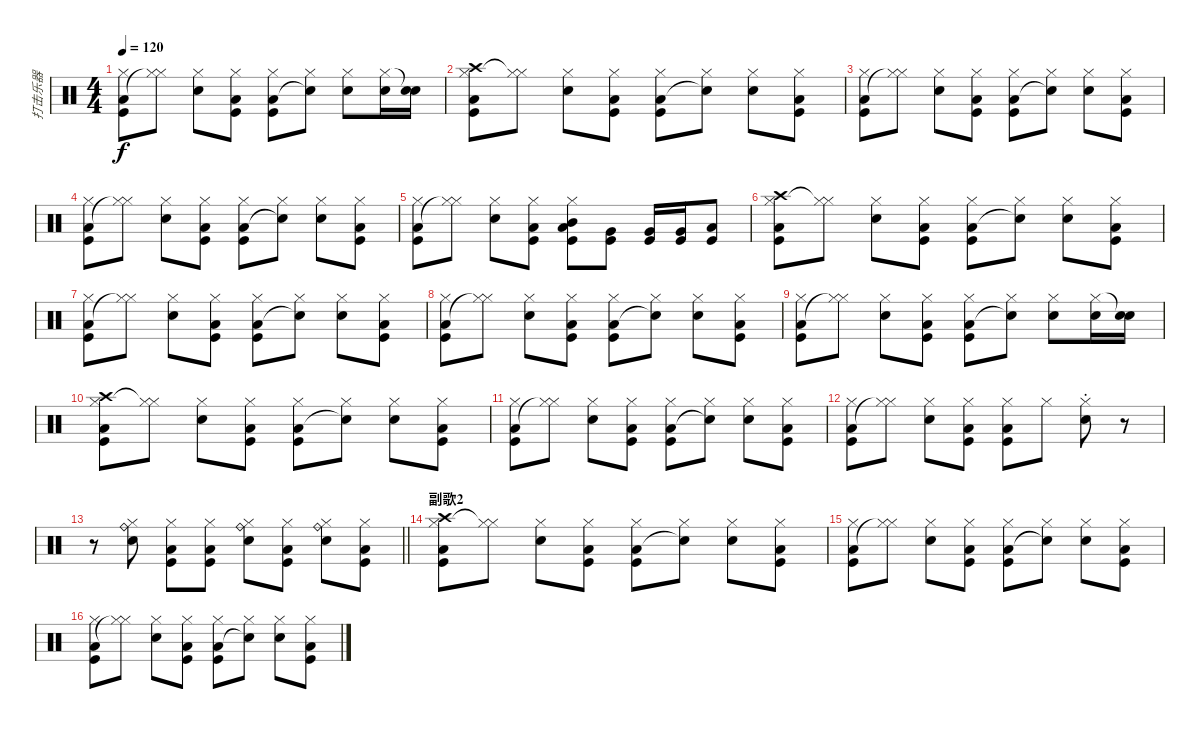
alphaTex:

\track ("打击乐器" "打击乐器") {instrument percussion}
\staff {score}
\articulation defaults
\ts (4 4)
\tempo 120
\clef neutral
\ks c
("Hi-Hat (closed)" "Low Floor Tom (hit)" "Kick (hit)").8{dy f} ("Hi-Hat (closed)" "Hi-Hat (closed)"{t}).8 ("Hi-Hat (closed)" "Electric Snare (hit)").8 ("Hi-Hat (closed)" "Low Floor Tom (hit)" "Kick (hit)").8 ("Hi-Hat (closed)" "Low Floor Tom (hit)" "Kick (hit)").8 ("Hi-Hat (closed)" "Snare (hit)"{t}).8 ("Hi-Hat (closed)" "Electric Snare (hit)").8 ("Hi-Hat (closed)" "Electric Snare (hit)").16 ("Snare (hit)"{t} "Electric Snare (hit)").16 |
("Crash high (hit)" "Hi-Hat (closed)" "Low Floor Tom (hit)" "Kick (hit)").8 ("Hi-Hat (closed)" "Hi-Hat (closed)"{t}).8 ("Hi-Hat (closed)" "Electric Snare (hit)").8 ("Hi-Hat (closed)" "Low Floor Tom (hit)" "Kick (hit)").8 ("Hi-Hat (closed)" "Low Floor Tom (hit)" "Kick (hit)").8 ("Hi-Hat (closed)" "Snare (hit)"{t}).8 ("Hi-Hat (closed)" "Electric Snare (hit)").8 ("Hi-Hat (closed)" "Low Floor Tom (hit)" "Kick (hit)").8 |
("Hi-Hat (closed)" "Low Floor Tom (hit)" "Kick (hit)").8 ("Hi-Hat (closed)" "Hi-Hat (closed)"{t}).8 ("Hi-Hat (closed)" "Electric Snare (hit)").8 ("Hi-Hat (closed)" "Low Floor Tom (hit)" "Kick (hit)").8 ("Hi-Hat (closed)" "Low Floor Tom (hit)" "Kick (hit)").8 ("Hi-Hat (closed)" "Snare (hit)"{t}).8 ("Hi-Hat (closed)" "Electric Snare (hit)").8 ("Hi-Hat (closed)" "Low Floor Tom (hit)" "Kick (hit)").8 |
("Hi-Hat (closed)" "Low Floor Tom (hit)" "Kick (hit)").8 ("Hi-Hat (closed)" "Hi-Hat (closed)"{t}).8 ("Hi-Hat (closed)" "Electric Snare (hit)").8 ("Hi-Hat (closed)" "Low Floor Tom (hit)" "Kick (hit)").8 ("Hi-Hat (closed)" "Low Floor Tom (hit)" "Kick (hit)").8 ("Hi-Hat (closed)" "Snare (hit)"{t}).8 ("Hi-Hat (closed)" "Electric Snare (hit)").8 ("Hi-Hat (closed)" "Low Floor Tom (hit)" "Kick (hit)").8 |
("Hi-Hat (closed)" "Low Floor Tom (hit)" "Kick (hit)").8 ("Hi-Hat (closed)" "Hi-Hat (closed)"{t}).8 ("Hi-Hat (closed)" "Electric Snare (hit)").8 ("Hi-Hat (closed)" "Low Floor Tom (hit)" "Kick (hit)").8 ("Hi-Hat (closed)" "Mid Tom (hit)" "Low Floor Tom (hit)" "Kick (hit)").8 ("Very Low Tom (hit)" "Kick (hit)").8 ("Very Low Tom (hit)" "Kick (hit)").16 ("Very Low Tom (hit)" "Kick (hit)").16 ("Low Floor Tom (hit)" "Kick (hit)").8 |
("Crash high (hit)" "Hi-Hat (closed)" "Low Floor Tom (hit)" "Kick (hit)").8 ("Hi-Hat (closed)" "Hi-Hat (closed)"{t}).8 ("Hi-Hat (closed)" "Electric Snare (hit)").8 ("Hi-Hat (closed)" "Low Floor Tom (hit)" "Kick (hit)").8 ("Hi-Hat (closed)" "Low Floor Tom (hit)" "Kick (hit)").8 ("Hi-Hat (closed)" "Snare (hit)"{t}).8 ("Hi-Hat (closed)" "Electric Snare (hit)").8 ("Hi-Hat (closed)" "Low Floor Tom (hit)" "Kick (hit)").8 |
("Hi-Hat (closed)" "Low Floor Tom (hit)" "Kick (hit)").8 ("Hi-Hat (closed)" "Hi-Hat (closed)"{t}).8 ("Hi-Hat (closed)" "Electric Snare (hit)").8 ("Hi-Hat (closed)" "Low Floor Tom (hit)" "Kick (hit)").8 ("Hi-Hat (closed)" "Low Floor Tom (hit)" "Kick (hit)").8 ("Hi-Hat (closed)" "Snare (hit)"{t}).8 ("Hi-Hat (closed)" "Electric Snare (hit)").8 ("Hi-Hat (closed)" "Low Floor Tom (hit)" "Kick (hit)").8 |
("Hi-Hat (closed)" "Low Floor Tom (hit)" "Kick (hit)").8 ("Hi-Hat (closed)" "Hi-Hat (closed)"{t}).8 ("Hi-Hat (closed)" "Electric Snare (hit)").8 ("Hi-Hat (closed)" "Low Floor Tom (hit)" "Kick (hit)").8 ("Hi-Hat (closed)" "Low Floor Tom (hit)" "Kick (hit)").8 ("Hi-Hat (closed)" "Snare (hit)"{t}).8 ("Hi-Hat (closed)" "Electric Snare (hit)").8 ("Hi-Hat (closed)" "Low Floor Tom (hit)" "Kick (hit)").8 |
("Hi-Hat (closed)" "Low Floor Tom (hit)" "Kick (hit)").8 ("Hi-Hat (closed)" "Hi-Hat (closed)"{t}).8 ("Hi-Hat (closed)" "Electric Snare (hit)").8 ("Hi-Hat (closed)" "Low Floor Tom (hit)" "Kick (hit)").8 ("Hi-Hat (closed)" "Low Floor Tom (hit)" "Kick (hit)").8 ("Hi-Hat (closed)" "Snare (hit)"{t}).8 ("Hi-Hat (closed)" "Electric Snare (hit)").8 ("Hi-Hat (closed)" "Electric Snare (hit)").16 ("Snare (hit)"{t} "Electric Snare (hit)").16 |
("Crash high (hit)" "Hi-Hat (closed)" "Low Floor Tom (hit)" "Kick (hit)").8 ("Hi-Hat (closed)" "Hi-Hat (closed)"{t}).8 ("Hi-Hat (closed)" "Electric Snare (hit)").8 ("Hi-Hat (closed)" "Low Floor Tom (hit)" "Kick (hit)").8 ("Hi-Hat (closed)" "Low Floor Tom (hit)" "Kick (hit)").8 ("Hi-Hat (closed)" "Snare (hit)"{t}).8 ("Hi-Hat (closed)" "Electric Snare (hit)").8 ("Hi-Hat (closed)" "Low Floor Tom (hit)" "Kick (hit)").8 |
("Hi-Hat (closed)" "Low Floor Tom (hit)" "Kick (hit)").8 ("Hi-Hat (closed)" "Hi-Hat (closed)"{t}).8 ("Hi-Hat (closed)" "Electric Snare (hit)").8 ("Hi-Hat (closed)" "Low Floor Tom (hit)" "Kick (hit)").8 ("Hi-Hat (closed)" "Low Floor Tom (hit)" "Kick (hit)").8 ("Hi-Hat (closed)" "Snare (hit)"{t}).8 ("Hi-Hat (closed)" "Electric Snare (hit)").8 ("Hi-Hat (closed)" "Low Floor Tom (hit)" "Kick (hit)").8 |
("Hi-Hat (closed)" "Low Floor Tom (hit)" "Kick (hit)").8 ("Hi-Hat (closed)" "Hi-Hat (closed)"{t}).8 ("Hi-Hat (closed)" "Electric Snare (hit)").8 ("Hi-Hat (closed)" "Low Floor Tom (hit)" "Kick (hit)").8 ("Hi-Hat (closed)" "Low Floor Tom (hit)" "Kick (hit)").8 "Hi-Hat (closed)".8 ("Hi-Hat (closed)"{st} "Electric Snare (hit)"{st}).8 r.8 |
\barLineRight lightlight
r.8 ("Ride (bell)" "Hi-Hat (closed)" "Electric Snare (hit)").8 ("Hi-Hat (closed)" "Low Floor Tom (hit)" "Kick (hit)").8 ("Hi-Hat (closed)" "Low Floor Tom (hit)" "Kick (hit)").8 ("Ride (bell)" "Hi-Hat (closed)" "Electric Snare (hit)").8 ("Hi-Hat (closed)" "Low Floor Tom (hit)" "Kick (hit)").8 ("Ride (bell)" "Hi-Hat (closed)" "Electric Snare (hit)").8 ("Hi-Hat (closed)" "Low Floor Tom (hit)" "Kick (hit)").8 |
\section ("" "副歌2")
("Crash high (hit)" "Hi-Hat (closed)" "Low Floor Tom (hit)" "Kick (hit)").8 ("Hi-Hat (closed)" "Hi-Hat (closed)"{t}).8 ("Hi-Hat (closed)" "Electric Snare (hit)").8 ("Hi-Hat (closed)" "Low Floor Tom (hit)" "Kick (hit)").8 ("Hi-Hat (closed)" "Low Floor Tom (hit)" "Kick (hit)").8 ("Hi-Hat (closed)" "Snare (hit)"{t}).8 ("Hi-Hat (closed)" "Electric Snare (hit)").8 ("Hi-Hat (closed)" "Low Floor Tom (hit)" "Kick (hit)").8 |
("Hi-Hat (closed)" "Low Floor Tom (hit)" "Kick (hit)").8 ("Hi-Hat (closed)" "Hi-Hat (closed)"{t}).8 ("Hi-Hat (closed)" "Electric Snare (hit)").8 ("Hi-Hat (closed)" "Low Floor Tom (hit)" "Kick (hit)").8 ("Hi-Hat (closed)" "Low Floor Tom (hit)" "Kick (hit)").8 ("Hi-Hat (closed)" "Snare (hit)"{t}).8 ("Hi-Hat (closed)" "Electric Snare (hit)").8 ("Hi-Hat (closed)" "Low Floor Tom (hit)" "Kick (hit)").8 |
("Hi-Hat (closed)" "Low Floor Tom (hit)" "Kick (hit)").8 ("Hi-Hat (closed)" "Hi-Hat (closed)"{t}).8 ("Hi-Hat (closed)" "Electric Snare (hit)").8 ("Hi-Hat (closed)" "Low Floor Tom (hit)" "Kick (hit)").8 ("Hi-Hat (closed)" "Low Floor Tom (hit)" "Kick (hit)").8 ("Hi-Hat (closed)" "Snare (hit)"{t}).8 ("Hi-Hat (closed)" "Electric Snare (hit)").8 ("Hi-Hat (closed)" "Low Floor Tom (hit)" "Kick (hit)").8
